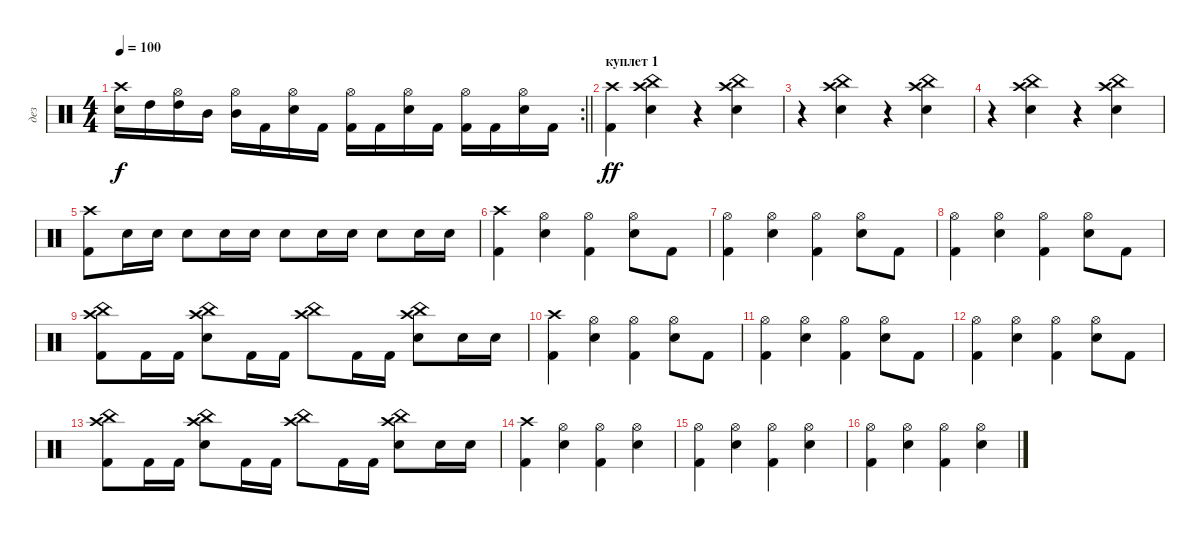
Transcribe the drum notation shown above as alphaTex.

\track ("дез" "дез") {instrument percussion}
\staff {score}
\articulation defaults
\rc 2
\ts (4 4)
\tempo 100
\clef neutral
\barLineRight lightlight
\ks c
("Crash high (hit)" "Electric Snare (hit)").16{dy f} "High Tom (hit)".16 ("Hi-Hat (open)" "High Tom (hit)").16 "Mid Tom (hit)".16 ("Hi-Hat (open)" "Mid Tom (hit)").16 "Kick (hit) 2".16 ("Hi-Hat (open)" "Electric Snare (hit)").16 "Kick (hit) 2".16 ("Hi-Hat (open)" "Kick (hit) 2").16 "Kick (hit) 2".16 ("Hi-Hat (open)" "Electric Snare (hit)").16 "Kick (hit) 2".16 ("Hi-Hat (open)" "Kick (hit) 2").16 "Kick (hit) 2".16 ("Hi-Hat (open)" "Electric Snare (hit)").16 "Kick (hit) 2".16 |
\section ("" "куплет 1")
("Kick (hit) 2" "Crash high (hit)").4{dy ff} ("Electric Snare (hit)" "Crash high (hit)" "China (hit)").4 r.4 ("Electric Snare (hit)" "Crash high (hit)" "China (hit)").4 |
r.4 ("Electric Snare (hit)" "Crash high (hit)" "China (hit)").4 r.4 ("Electric Snare (hit)" "Crash high (hit)" "China (hit)").4 |
r.4 ("Electric Snare (hit)" "Crash high (hit)" "China (hit)").4 r.4 ("Electric Snare (hit)" "Crash high (hit)" "China (hit)").4 |
("Kick (hit) 2" "Crash high (hit)").8 "Electric Snare (hit)".16 "Electric Snare (hit)".16 "Electric Snare (hit)".8 "Electric Snare (hit)".16 "Electric Snare (hit)".16 "Electric Snare (hit)".8 "Electric Snare (hit)".16 "Electric Snare (hit)".16 "Electric Snare (hit)".8 "Electric Snare (hit)".16 "Electric Snare (hit)".16 |
("Kick (hit) 2" "Crash high (hit)").4 ("Electric Snare (hit)" "Hi-Hat (open)").4 ("Kick (hit) 2" "Hi-Hat (open)").4 ("Electric Snare (hit)" "Hi-Hat (open)").8 "Kick (hit) 2".8 |
("Kick (hit) 2" "Hi-Hat (open)").4 ("Electric Snare (hit)" "Hi-Hat (open)").4 ("Kick (hit) 2" "Hi-Hat (open)").4 ("Electric Snare (hit)" "Hi-Hat (open)").8 "Kick (hit) 2".8 |
("Kick (hit) 2" "Hi-Hat (open)").4 ("Electric Snare (hit)" "Hi-Hat (open)").4 ("Kick (hit) 2" "Hi-Hat (open)").4 ("Electric Snare (hit)" "Hi-Hat (open)").8 "Kick (hit) 2".8 |
("Kick (hit) 2" "Crash high (hit)" "China (hit)").8 "Kick (hit) 2".16 "Kick (hit) 2".16 ("Electric Snare (hit)" "Crash high (hit)" "China (hit)").8 "Kick (hit) 2".16 "Kick (hit) 2".16 ("Crash high (hit)" "China (hit)").8 "Kick (hit) 2".16 "Kick (hit) 2".16 ("Electric Snare (hit)" "Crash high (hit)" "China (hit)").8 "Electric Snare (hit)".16 "Electric Snare (hit)".16 |
("Kick (hit) 2" "Crash high (hit)").4 ("Electric Snare (hit)" "Hi-Hat (open)").4 ("Kick (hit) 2" "Hi-Hat (open)").4 ("Electric Snare (hit)" "Hi-Hat (open)").8 "Kick (hit) 2".8 |
("Kick (hit) 2" "Hi-Hat (open)").4 ("Electric Snare (hit)" "Hi-Hat (open)").4 ("Kick (hit) 2" "Hi-Hat (open)").4 ("Electric Snare (hit)" "Hi-Hat (open)").8 "Kick (hit) 2".8 |
("Kick (hit) 2" "Hi-Hat (open)").4 ("Electric Snare (hit)" "Hi-Hat (open)").4 ("Kick (hit) 2" "Hi-Hat (open)").4 ("Electric Snare (hit)" "Hi-Hat (open)").8 "Kick (hit) 2".8 |
("Kick (hit) 2" "Crash high (hit)" "China (hit)").8 "Kick (hit) 2".16 "Kick (hit) 2".16 ("Electric Snare (hit)" "Crash high (hit)" "China (hit)").8 "Kick (hit) 2".16 "Kick (hit) 2".16 ("Crash high (hit)" "China (hit)").8 "Kick (hit) 2".16 "Kick (hit) 2".16 ("Electric Snare (hit)" "Crash high (hit)" "China (hit)").8 "Electric Snare (hit)".16 "Electric Snare (hit)".16 |
("Kick (hit) 2" "Crash high (hit)").4 ("Electric Snare (hit)" "Hi-Hat (open)").4 ("Kick (hit) 2" "Hi-Hat (open)").4 ("Electric Snare (hit)" "Hi-Hat (open)").4 |
("Kick (hit) 2" "Hi-Hat (open)").4 ("Electric Snare (hit)" "Hi-Hat (open)").4 ("Kick (hit) 2" "Hi-Hat (open)").4 ("Electric Snare (hit)" "Hi-Hat (open)").4 |
("Kick (hit) 2" "Hi-Hat (open)").4 ("Electric Snare (hit)" "Hi-Hat (open)").4 ("Kick (hit) 2" "Hi-Hat (open)").4 ("Electric Snare (hit)" "Hi-Hat (open)").4
